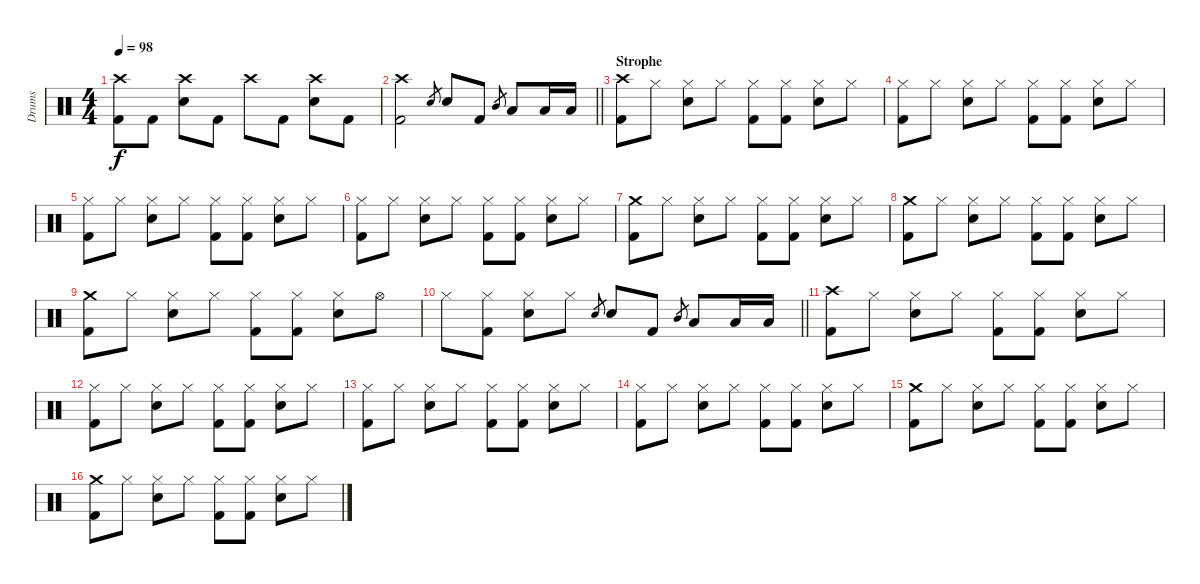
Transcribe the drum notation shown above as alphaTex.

\track ("Drums" "Drums") {instrument percussion}
\staff {score}
\articulation defaults
\ts (4 4)
\tempo 98
\clef neutral
\ks c
("Crash high (hit)" "Kick (hit) 2").8{dy f} "Kick (hit) 2".8 ("Crash high (hit)" "Snare (hit) 2").8 "Kick (hit) 2".8 "Crash high (hit)".8 "Kick (hit) 2".8 ("Crash high (hit)" "Snare (hit) 2").8 "Kick (hit) 2".8 |
\barLineRight lightlight
("Crash high (hit)" "Kick (hit) 2").2 "Snare (hit) 2".8{gr} "Snare (hit) 2".8 "Kick (hit) 2".8 "Mid Tom (hit)".8{gr} "Low Tom (hit)".8 "Low Tom (hit)".16 "Low Tom (hit)".16 |
\section ("" "Strophe")
("Crash high (hit)" "Kick (hit) 2").8 "Hi-Hat (closed)".8 ("Hi-Hat (closed)" "Snare (hit) 2").8 "Hi-Hat (closed)".8 ("Hi-Hat (closed)" "Kick (hit) 2").8 ("Hi-Hat (closed)" "Kick (hit) 2").8 ("Hi-Hat (closed)" "Snare (hit) 2").8 "Hi-Hat (closed)".8 |
("Hi-Hat (closed)" "Kick (hit) 2").8 "Hi-Hat (closed)".8 ("Hi-Hat (closed)" "Snare (hit) 2").8 "Hi-Hat (closed)".8 ("Hi-Hat (closed)" "Kick (hit) 2").8 ("Hi-Hat (closed)" "Kick (hit) 2").8 ("Hi-Hat (closed)" "Snare (hit) 2").8 "Hi-Hat (closed)".8 |
("Hi-Hat (closed)" "Kick (hit) 2").8 "Hi-Hat (closed)".8 ("Hi-Hat (closed)" "Snare (hit) 2").8 "Hi-Hat (closed)".8 ("Hi-Hat (closed)" "Kick (hit) 2").8 ("Hi-Hat (closed)" "Kick (hit) 2").8 ("Hi-Hat (closed)" "Snare (hit) 2").8 "Hi-Hat (closed)".8 |
("Hi-Hat (closed)" "Kick (hit) 2").8 "Hi-Hat (closed)".8 ("Hi-Hat (closed)" "Snare (hit) 2").8 "Hi-Hat (closed)".8 ("Hi-Hat (closed)" "Kick (hit) 2").8 ("Hi-Hat (closed)" "Kick (hit) 2").8 ("Hi-Hat (closed)" "Snare (hit) 2").8 "Hi-Hat (closed)".8 |
("Crash medium (hit)" "Kick (hit) 2").8 "Hi-Hat (closed)".8 ("Hi-Hat (closed)" "Snare (hit) 2").8 "Hi-Hat (closed)".8 ("Hi-Hat (closed)" "Kick (hit) 2").8 ("Hi-Hat (closed)" "Kick (hit) 2").8 ("Hi-Hat (closed)" "Snare (hit) 2").8 "Hi-Hat (closed)".8 |
("Crash medium (hit)" "Kick (hit) 2").8 "Hi-Hat (closed)".8 ("Hi-Hat (closed)" "Snare (hit) 2").8 "Hi-Hat (closed)".8 ("Hi-Hat (closed)" "Kick (hit) 2").8 ("Hi-Hat (closed)" "Kick (hit) 2").8 ("Hi-Hat (closed)" "Snare (hit) 2").8 "Hi-Hat (closed)".8 |
("Crash medium (hit)" "Kick (hit) 2").8 "Hi-Hat (closed)".8 ("Hi-Hat (closed)" "Snare (hit) 2").8 "Hi-Hat (closed)".8 ("Hi-Hat (closed)" "Kick (hit) 2").8 ("Hi-Hat (closed)" "Kick (hit) 2").8 ("Hi-Hat (closed)" "Snare (hit) 2").8 "Hi-Hat (open)".8 |
\barLineRight lightlight "Hi-Hat (closed)".8
("Hi-Hat (closed)" "Kick (hit) 2").8 ("Hi-Hat (closed)" "Snare (hit) 2").8 "Hi-Hat (closed)".8 "Snare (hit) 2".8{gr} "Snare (hit) 2".8 "Kick (hit) 2".8 "Mid Tom (hit)".8{gr} "Low Tom (hit)".8 "Low Tom (hit)".16 "Low Tom (hit)".16 |
("Crash high (hit)" "Kick (hit) 2").8 "Hi-Hat (closed)".8 ("Hi-Hat (closed)" "Snare (hit) 2").8 "Hi-Hat (closed)".8 ("Hi-Hat (closed)" "Kick (hit) 2").8 ("Hi-Hat (closed)" "Kick (hit) 2").8 ("Hi-Hat (closed)" "Snare (hit) 2").8 "Hi-Hat (closed)".8 |
("Hi-Hat (closed)" "Kick (hit) 2").8 "Hi-Hat (closed)".8 ("Hi-Hat (closed)" "Snare (hit) 2").8 "Hi-Hat (closed)".8 ("Hi-Hat (closed)" "Kick (hit) 2").8 ("Hi-Hat (closed)" "Kick (hit) 2").8 ("Hi-Hat (closed)" "Snare (hit) 2").8 "Hi-Hat (closed)".8 |
("Hi-Hat (closed)" "Kick (hit) 2").8 "Hi-Hat (closed)".8 ("Hi-Hat (closed)" "Snare (hit) 2").8 "Hi-Hat (closed)".8 ("Hi-Hat (closed)" "Kick (hit) 2").8 ("Hi-Hat (closed)" "Kick (hit) 2").8 ("Hi-Hat (closed)" "Snare (hit) 2").8 "Hi-Hat (closed)".8 |
("Hi-Hat (closed)" "Kick (hit) 2").8 "Hi-Hat (closed)".8 ("Hi-Hat (closed)" "Snare (hit) 2").8 "Hi-Hat (closed)".8 ("Hi-Hat (closed)" "Kick (hit) 2").8 ("Hi-Hat (closed)" "Kick (hit) 2").8 ("Hi-Hat (closed)" "Snare (hit) 2").8 "Hi-Hat (closed)".8 |
("Crash medium (hit)" "Kick (hit) 2").8 "Hi-Hat (closed)".8 ("Hi-Hat (closed)" "Snare (hit) 2").8 "Hi-Hat (closed)".8 ("Hi-Hat (closed)" "Kick (hit) 2").8 ("Hi-Hat (closed)" "Kick (hit) 2").8 ("Hi-Hat (closed)" "Snare (hit) 2").8 "Hi-Hat (closed)".8 |
("Crash medium (hit)" "Kick (hit) 2").8 "Hi-Hat (closed)".8 ("Hi-Hat (closed)" "Snare (hit) 2").8 "Hi-Hat (closed)".8 ("Hi-Hat (closed)" "Kick (hit) 2").8 ("Hi-Hat (closed)" "Kick (hit) 2").8 ("Hi-Hat (closed)" "Snare (hit) 2").8 "Hi-Hat (closed)".8
